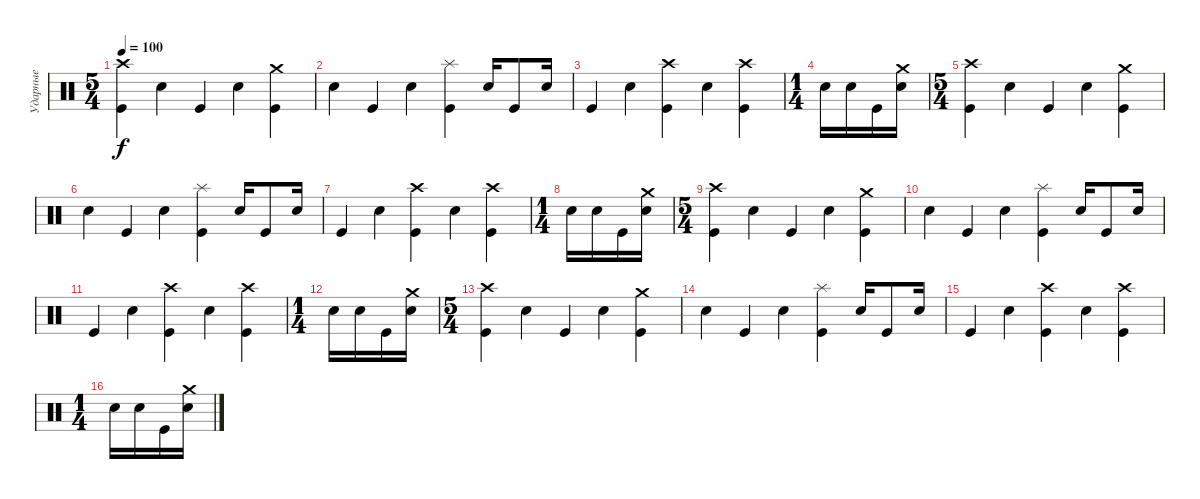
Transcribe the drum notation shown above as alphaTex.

\track ("Ударные" "Ударные") {instrument percussion}
\staff {score}
\articulation defaults
\ts (5 4)
\tempo 100
\clef neutral
\ks c
("Crash high (hit)" "Kick (hit)").4{dy f} "Electric Snare (hit)".4 "Kick (hit)".4 "Electric Snare (hit)".4 ("Crash medium (hit)" "Kick (hit)").4 |
"Electric Snare (hit)".4 "Kick (hit)".4 "Electric Snare (hit)".4 ("Splash (hit)" "Kick (hit)").4 "Electric Snare (hit)".16 "Kick (hit)".8 "Electric Snare (hit)".16 |
"Kick (hit)".4 "Electric Snare (hit)".4 ("Crash high (hit)" "Kick (hit)").4 "Electric Snare (hit)".4 ("Crash high (hit)" "Kick (hit)").4 |
\ts (1 4)
"Electric Snare (hit)".16 "Electric Snare (hit)".16 "Kick (hit)".16 ("Crash medium (hit)" "Electric Snare (hit)").16 |
\ts (5 4)
("Crash high (hit)" "Kick (hit)").4 "Electric Snare (hit)".4 "Kick (hit)".4 "Electric Snare (hit)".4 ("Crash medium (hit)" "Kick (hit)").4 |
"Electric Snare (hit)".4 "Kick (hit)".4 "Electric Snare (hit)".4 ("Splash (hit)" "Kick (hit)").4 "Electric Snare (hit)".16 "Kick (hit)".8 "Electric Snare (hit)".16 |
"Kick (hit)".4 "Electric Snare (hit)".4 ("Crash high (hit)" "Kick (hit)").4 "Electric Snare (hit)".4 ("Crash high (hit)" "Kick (hit)").4 |
\ts (1 4)
"Electric Snare (hit)".16 "Electric Snare (hit)".16 "Kick (hit)".16 ("Crash medium (hit)" "Electric Snare (hit)").16 |
\ts (5 4)
("Crash high (hit)" "Kick (hit)").4 "Electric Snare (hit)".4 "Kick (hit)".4 "Electric Snare (hit)".4 ("Crash medium (hit)" "Kick (hit)").4 |
"Electric Snare (hit)".4 "Kick (hit)".4 "Electric Snare (hit)".4 ("Splash (hit)" "Kick (hit)").4 "Electric Snare (hit)".16 "Kick (hit)".8 "Electric Snare (hit)".16 |
"Kick (hit)".4 "Electric Snare (hit)".4 ("Crash high (hit)" "Kick (hit)").4 "Electric Snare (hit)".4 ("Crash high (hit)" "Kick (hit)").4 |
\ts (1 4)
"Electric Snare (hit)".16 "Electric Snare (hit)".16 "Kick (hit)".16 ("Crash medium (hit)" "Electric Snare (hit)").16 |
\ts (5 4)
("Crash high (hit)" "Kick (hit)").4 "Electric Snare (hit)".4 "Kick (hit)".4 "Electric Snare (hit)".4 ("Crash medium (hit)" "Kick (hit)").4 |
"Electric Snare (hit)".4 "Kick (hit)".4 "Electric Snare (hit)".4 ("Splash (hit)" "Kick (hit)").4 "Electric Snare (hit)".16 "Kick (hit)".8 "Electric Snare (hit)".16 |
"Kick (hit)".4 "Electric Snare (hit)".4 ("Crash high (hit)" "Kick (hit)").4 "Electric Snare (hit)".4 ("Crash high (hit)" "Kick (hit)").4 |
\ts (1 4)
"Electric Snare (hit)".16 "Electric Snare (hit)".16 "Kick (hit)".16 ("Crash medium (hit)" "Electric Snare (hit)").16
